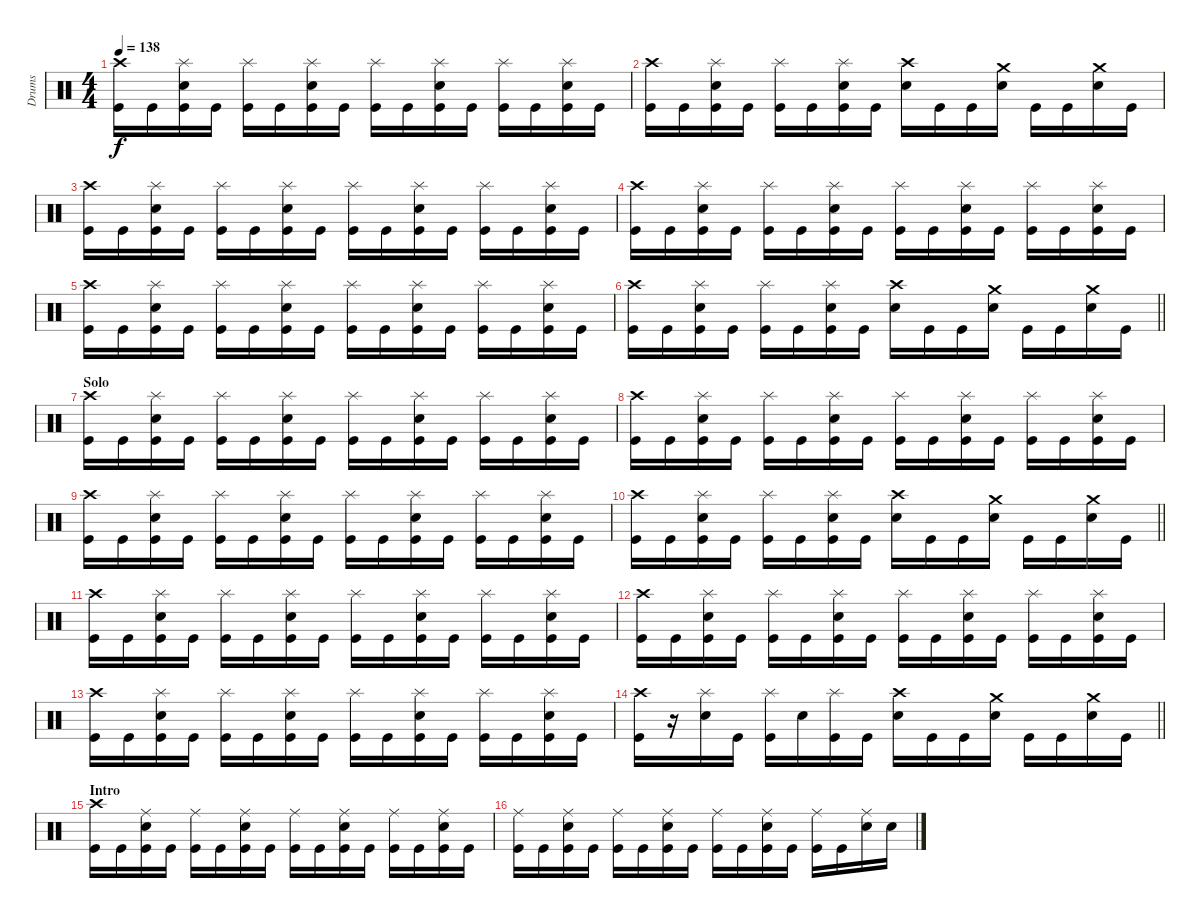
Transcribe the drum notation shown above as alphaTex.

\track ("Drums" "Drums") {instrument percussion}
\staff {score}
\articulation defaults
\ts (4 4)
\tempo 138
\clef neutral
\ks c
("Crash high (hit)" "Kick (hit)").16{dy f} "Kick (hit)".16 ("Splash (hit)" "Electric Snare (hit)" "Kick (hit)").16 "Kick (hit)".16 ("Splash (hit)" "Kick (hit)").16 "Kick (hit)".16 ("Splash (hit)" "Electric Snare (hit)" "Kick (hit)").16 "Kick (hit)".16 ("Splash (hit)" "Kick (hit)").16 "Kick (hit)".16 ("Splash (hit)" "Electric Snare (hit)" "Kick (hit)").16 "Kick (hit)".16 ("Splash (hit)" "Kick (hit)").16 "Kick (hit)".16 ("Splash (hit)" "Electric Snare (hit)" "Kick (hit)").16 "Kick (hit)".16 |
("Crash high (hit)" "Kick (hit)").16 "Kick (hit)".16 ("Splash (hit)" "Electric Snare (hit)" "Kick (hit)").16 "Kick (hit)".16 ("Splash (hit)" "Kick (hit)").16 "Kick (hit)".16 ("Splash (hit)" "Electric Snare (hit)" "Kick (hit)").16 "Kick (hit)".16 ("Crash high (hit)" "Electric Snare (hit)").16 "Kick (hit)".16 "Kick (hit)".16 ("Crash medium (hit)" "Electric Snare (hit)").16 "Kick (hit)".16 "Kick (hit)".16 ("Crash medium (hit)" "Electric Snare (hit)").16 "Kick (hit)".16 |
("Crash high (hit)" "Kick (hit)").16 "Kick (hit)".16 ("Splash (hit)" "Electric Snare (hit)" "Kick (hit)").16 "Kick (hit)".16 ("Splash (hit)" "Kick (hit)").16 "Kick (hit)".16 ("Splash (hit)" "Electric Snare (hit)" "Kick (hit)").16 "Kick (hit)".16 ("Splash (hit)" "Kick (hit)").16 "Kick (hit)".16 ("Splash (hit)" "Electric Snare (hit)" "Kick (hit)").16 "Kick (hit)".16 ("Splash (hit)" "Kick (hit)").16 "Kick (hit)".16 ("Splash (hit)" "Electric Snare (hit)" "Kick (hit)").16 "Kick (hit)".16 |
("Crash high (hit)" "Kick (hit)").16 "Kick (hit)".16 ("Splash (hit)" "Electric Snare (hit)" "Kick (hit)").16 "Kick (hit)".16 ("Splash (hit)" "Kick (hit)").16 "Kick (hit)".16 ("Splash (hit)" "Electric Snare (hit)" "Kick (hit)").16 "Kick (hit)".16 ("Splash (hit)" "Kick (hit)").16 "Kick (hit)".16 ("Splash (hit)" "Electric Snare (hit)" "Kick (hit)").16 "Kick (hit)".16 ("Splash (hit)" "Kick (hit)").16 "Kick (hit)".16 ("Splash (hit)" "Electric Snare (hit)" "Kick (hit)").16 "Kick (hit)".16 |
("Crash high (hit)" "Kick (hit)").16 "Kick (hit)".16 ("Splash (hit)" "Electric Snare (hit)" "Kick (hit)").16 "Kick (hit)".16 ("Splash (hit)" "Kick (hit)").16 "Kick (hit)".16 ("Splash (hit)" "Electric Snare (hit)" "Kick (hit)").16 "Kick (hit)".16 ("Splash (hit)" "Kick (hit)").16 "Kick (hit)".16 ("Splash (hit)" "Electric Snare (hit)" "Kick (hit)").16 "Kick (hit)".16 ("Splash (hit)" "Kick (hit)").16 "Kick (hit)".16 ("Splash (hit)" "Electric Snare (hit)" "Kick (hit)").16 "Kick (hit)".16 |
\barLineRight lightlight
("Crash high (hit)" "Kick (hit)").16 "Kick (hit)".16 ("Splash (hit)" "Electric Snare (hit)" "Kick (hit)").16 "Kick (hit)".16 ("Splash (hit)" "Kick (hit)").16 "Kick (hit)".16 ("Splash (hit)" "Electric Snare (hit)" "Kick (hit)").16 "Kick (hit)".16 ("Crash high (hit)" "Electric Snare (hit)").16 "Kick (hit)".16 "Kick (hit)".16 ("Crash medium (hit)" "Electric Snare (hit)").16 "Kick (hit)".16 "Kick (hit)".16 ("Crash medium (hit)" "Electric Snare (hit)").16 "Kick (hit)".16 |
\section ("" "Solo")
("Crash high (hit)" "Kick (hit)").16 "Kick (hit)".16 ("Splash (hit)" "Electric Snare (hit)" "Kick (hit)").16 "Kick (hit)".16 ("Splash (hit)" "Kick (hit)").16 "Kick (hit)".16 ("Splash (hit)" "Electric Snare (hit)" "Kick (hit)").16 "Kick (hit)".16 ("Splash (hit)" "Kick (hit)").16 "Kick (hit)".16 ("Splash (hit)" "Electric Snare (hit)" "Kick (hit)").16 "Kick (hit)".16 ("Splash (hit)" "Kick (hit)").16 "Kick (hit)".16 ("Splash (hit)" "Electric Snare (hit)" "Kick (hit)").16 "Kick (hit)".16 |
("Crash high (hit)" "Kick (hit)").16 "Kick (hit)".16 ("Splash (hit)" "Electric Snare (hit)" "Kick (hit)").16 "Kick (hit)".16 ("Splash (hit)" "Kick (hit)").16 "Kick (hit)".16 ("Splash (hit)" "Electric Snare (hit)" "Kick (hit)").16 "Kick (hit)".16 ("Splash (hit)" "Kick (hit)").16 "Kick (hit)".16 ("Splash (hit)" "Electric Snare (hit)" "Kick (hit)").16 "Kick (hit)".16 ("Splash (hit)" "Kick (hit)").16 "Kick (hit)".16 ("Splash (hit)" "Electric Snare (hit)" "Kick (hit)").16 "Kick (hit)".16 |
("Crash high (hit)" "Kick (hit)").16 "Kick (hit)".16 ("Splash (hit)" "Electric Snare (hit)" "Kick (hit)").16 "Kick (hit)".16 ("Splash (hit)" "Kick (hit)").16 "Kick (hit)".16 ("Splash (hit)" "Electric Snare (hit)" "Kick (hit)").16 "Kick (hit)".16 ("Splash (hit)" "Kick (hit)").16 "Kick (hit)".16 ("Splash (hit)" "Electric Snare (hit)" "Kick (hit)").16 "Kick (hit)".16 ("Splash (hit)" "Kick (hit)").16 "Kick (hit)".16 ("Splash (hit)" "Electric Snare (hit)" "Kick (hit)").16 "Kick (hit)".16 |
\barLineRight lightlight
("Crash high (hit)" "Kick (hit)").16 "Kick (hit)".16 ("Splash (hit)" "Electric Snare (hit)" "Kick (hit)").16 "Kick (hit)".16 ("Splash (hit)" "Kick (hit)").16 "Kick (hit)".16 ("Splash (hit)" "Electric Snare (hit)" "Kick (hit)").16 "Kick (hit)".16 ("Crash high (hit)" "Electric Snare (hit)").16 "Kick (hit)".16 "Kick (hit)".16 ("Crash medium (hit)" "Electric Snare (hit)").16 "Kick (hit)".16 "Kick (hit)".16 ("Crash medium (hit)" "Electric Snare (hit)").16 "Kick (hit)".16 |
("Crash high (hit)" "Kick (hit)").16 "Kick (hit)".16 ("Splash (hit)" "Electric Snare (hit)" "Kick (hit)").16 "Kick (hit)".16 ("Splash (hit)" "Kick (hit)").16 "Kick (hit)".16 ("Splash (hit)" "Electric Snare (hit)" "Kick (hit)").16 "Kick (hit)".16 ("Splash (hit)" "Kick (hit)").16 "Kick (hit)".16 ("Splash (hit)" "Electric Snare (hit)" "Kick (hit)").16 "Kick (hit)".16 ("Splash (hit)" "Kick (hit)").16 "Kick (hit)".16 ("Splash (hit)" "Electric Snare (hit)" "Kick (hit)").16 "Kick (hit)".16 |
("Crash high (hit)" "Kick (hit)").16 "Kick (hit)".16 ("Splash (hit)" "Electric Snare (hit)" "Kick (hit)").16 "Kick (hit)".16 ("Splash (hit)" "Kick (hit)").16 "Kick (hit)".16 ("Splash (hit)" "Electric Snare (hit)" "Kick (hit)").16 "Kick (hit)".16 ("Splash (hit)" "Kick (hit)").16 "Kick (hit)".16 ("Splash (hit)" "Electric Snare (hit)" "Kick (hit)").16 "Kick (hit)".16 ("Splash (hit)" "Kick (hit)").16 "Kick (hit)".16 ("Splash (hit)" "Electric Snare (hit)" "Kick (hit)").16 "Kick (hit)".16 |
("Crash high (hit)" "Kick (hit)").16 "Kick (hit)".16 ("Splash (hit)" "Electric Snare (hit)" "Kick (hit)").16 "Kick (hit)".16 ("Splash (hit)" "Kick (hit)").16 "Kick (hit)".16 ("Splash (hit)" "Electric Snare (hit)" "Kick (hit)").16 "Kick (hit)".16 ("Splash (hit)" "Kick (hit)").16 "Kick (hit)".16 ("Splash (hit)" "Electric Snare (hit)" "Kick (hit)").16 "Kick (hit)".16 ("Splash (hit)" "Kick (hit)").16 "Kick (hit)".16 ("Splash (hit)" "Electric Snare (hit)" "Kick (hit)").16 "Kick (hit)".16 |
\barLineRight lightlight
("Crash high (hit)" "Kick (hit)").16 r.16 ("Splash (hit)" "Electric Snare (hit)").16 "Kick (hit)".16 ("Splash (hit)" "Kick (hit)").16 "Electric Snare (hit)".16 ("Splash (hit)" "Kick (hit)").16 "Kick (hit)".16 ("Crash high (hit)" "Electric Snare (hit)").16 "Kick (hit)".16 "Kick (hit)".16 ("Crash medium (hit)" "Electric Snare (hit)").16 "Kick (hit)".16 "Kick (hit)".16 ("Crash medium (hit)" "Electric Snare (hit)").16 "Kick (hit)".16 |
\section ("" "Intro")
("Crash high (hit)" "Kick (hit)").16 "Kick (hit)".16 ("Ride (middle)" "Electric Snare (hit)" "Kick (hit)").16 "Kick (hit)".16 ("Ride (middle)" "Kick (hit)").16 "Kick (hit)".16 ("Ride (middle)" "Electric Snare (hit)" "Kick (hit)").16 "Kick (hit)".16 ("Ride (middle)" "Kick (hit)").16 "Kick (hit)".16 ("Ride (middle)" "Electric Snare (hit)" "Kick (hit)").16 "Kick (hit)".16 ("Ride (middle)" "Kick (hit)").16 "Kick (hit)".16 ("Ride (middle)" "Electric Snare (hit)" "Kick (hit)").16 "Kick (hit)".16 |
("Ride (middle)" "Kick (hit)").16 "Kick (hit)".16 ("Ride (middle)" "Electric Snare (hit)" "Kick (hit)").16 "Kick (hit)".16 ("Ride (middle)" "Kick (hit)").16 "Kick (hit)".16 ("Ride (middle)" "Electric Snare (hit)" "Kick (hit)").16 "Kick (hit)".16 ("Ride (middle)" "Kick (hit)").16 "Kick (hit)".16 ("Ride (middle)" "Electric Snare (hit)" "Kick (hit)").16 "Kick (hit)".16 ("Ride (middle)" "Kick (hit)").16 "Kick (hit)".16 ("Ride (middle)" "Electric Snare (hit)").16 "Electric Snare (hit)".16
